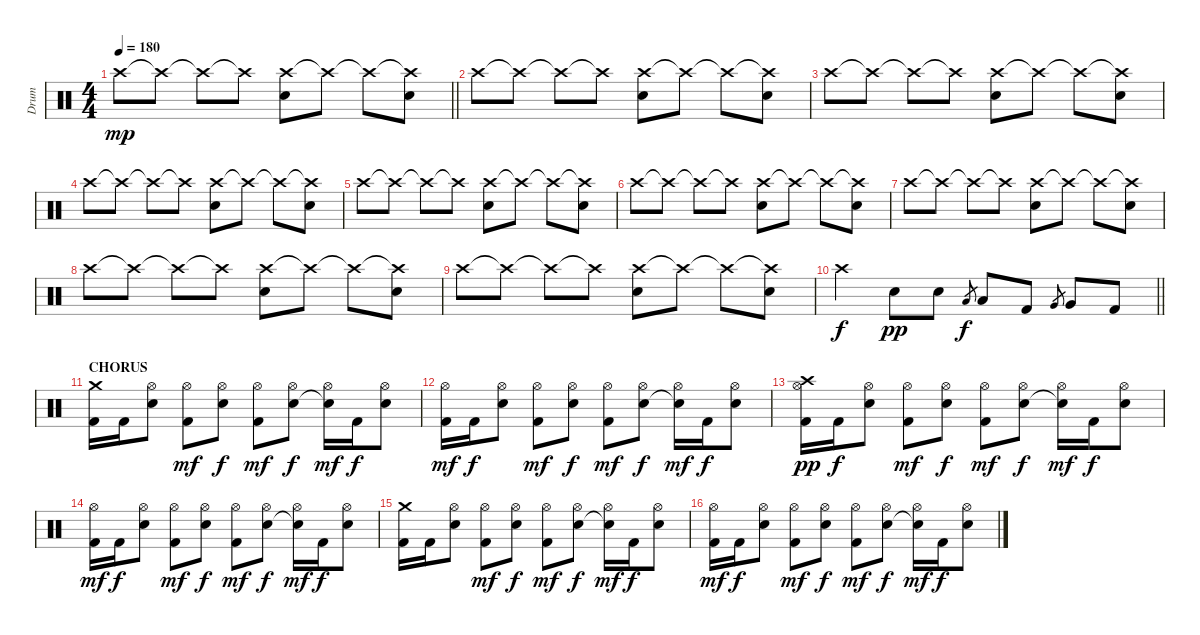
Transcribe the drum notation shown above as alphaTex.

\track ("Drum" "Drum") {instrument percussion}
\staff {score}
\articulation defaults
\ts (4 4)
\tempo 180
\clef neutral
\barLineRight lightlight
\ks c "Crash high (hit)".8{dy mp} "Crash high (hit)"{t}.8 "Crash high (hit)"{t}.8 "Crash high (hit)"{t}.8
("Crash high (hit)" "Electric Snare (hit)").8 "Crash high (hit)"{t}.8 "Crash high (hit)"{t}.8 ("Crash high (hit)"{t} "Electric Snare (hit)").8 |
"Crash high (hit)".8 "Crash high (hit)"{t}.8 "Crash high (hit)"{t}.8 "Crash high (hit)"{t}.8 ("Crash high (hit)" "Electric Snare (hit)").8 "Crash high (hit)"{t}.8 "Crash high (hit)"{t}.8 ("Crash high (hit)"{t} "Electric Snare (hit)").8 |
"Crash high (hit)".8 "Crash high (hit)"{t}.8 "Crash high (hit)"{t}.8 "Crash high (hit)"{t}.8 ("Crash high (hit)" "Electric Snare (hit)").8 "Crash high (hit)"{t}.8 "Crash high (hit)"{t}.8 ("Crash high (hit)"{t} "Electric Snare (hit)").8 |
"Crash high (hit)".8 "Crash high (hit)"{t}.8 "Crash high (hit)"{t}.8 "Crash high (hit)"{t}.8 ("Crash high (hit)" "Electric Snare (hit)").8 "Crash high (hit)"{t}.8 "Crash high (hit)"{t}.8 ("Crash high (hit)"{t} "Electric Snare (hit)").8 |
"Crash high (hit)".8 "Crash high (hit)"{t}.8 "Crash high (hit)"{t}.8 "Crash high (hit)"{t}.8 ("Crash high (hit)" "Electric Snare (hit)").8 "Crash high (hit)"{t}.8 "Crash high (hit)"{t}.8 ("Crash high (hit)"{t} "Electric Snare (hit)").8 |
"Crash high (hit)".8 "Crash high (hit)"{t}.8 "Crash high (hit)"{t}.8 "Crash high (hit)"{t}.8 ("Crash high (hit)" "Electric Snare (hit)").8 "Crash high (hit)"{t}.8 "Crash high (hit)"{t}.8 ("Crash high (hit)"{t} "Electric Snare (hit)").8 |
"Crash high (hit)".8 "Crash high (hit)"{t}.8 "Crash high (hit)"{t}.8 "Crash high (hit)"{t}.8 ("Crash high (hit)" "Electric Snare (hit)").8 "Crash high (hit)"{t}.8 "Crash high (hit)"{t}.8 ("Crash high (hit)"{t} "Electric Snare (hit)").8 |
"Crash high (hit)".8 "Crash high (hit)"{t}.8 "Crash high (hit)"{t}.8 "Crash high (hit)"{t}.8 ("Crash high (hit)" "Electric Snare (hit)").8 "Crash high (hit)"{t}.8 "Crash high (hit)"{t}.8 ("Crash high (hit)"{t} "Electric Snare (hit)").8 |
"Crash high (hit)".8 "Crash high (hit)"{t}.8 "Crash high (hit)"{t}.8 "Crash high (hit)"{t}.8 ("Crash high (hit)" "Electric Snare (hit)").8 "Crash high (hit)"{t}.8 "Crash high (hit)"{t}.8 ("Crash high (hit)"{t} "Electric Snare (hit)").8 |
\barLineRight lightlight "Crash high (hit)".4{dy f} "Electric Snare (hit)".8{dy pp} "Electric Snare (hit)".8 "Low Tom (hit)".8{gr dy f} "Low Tom (hit)".8 "Kick (hit) 2".8 "Very Low Tom (hit)".8{gr} "Very Low Tom (hit)".8 "Kick (hit) 2".8
|
\section ("" "CHORUS")
("Crash medium (hit)" "Kick (hit) 2").16 "Kick (hit) 2".16 ("Hi-Hat (open)" "Electric Snare (hit)").8 ("Hi-Hat (open)" "Kick (hit) 2").8{dy mf} ("Hi-Hat (open)" "Electric Snare (hit)").8{dy f} ("Hi-Hat (open)" "Kick (hit) 2").8{dy mf} ("Hi-Hat (open)" "Electric Snare (hit)").8{dy f} ("Hi-Hat (open)" "Electric Snare (hit)"{t}).16{dy mf} "Kick (hit) 2".16{dy f} ("Hi-Hat (open)" "Electric Snare (hit)").8 |
("Hi-Hat (open)" "Kick (hit) 2").16{dy mf} "Kick (hit) 2".16{dy f} ("Hi-Hat (open)" "Electric Snare (hit)").8 ("Hi-Hat (open)" "Kick (hit) 2").8{dy mf} ("Hi-Hat (open)" "Electric Snare (hit)").8{dy f} ("Hi-Hat (open)" "Kick (hit) 2").8{dy mf} ("Hi-Hat (open)" "Electric Snare (hit)").8{dy f} ("Hi-Hat (open)" "Electric Snare (hit)"{t}).16{dy mf} "Kick (hit) 2".16{dy f} ("Hi-Hat (open)" "Electric Snare (hit)").8 |
("Hi-Hat (open)" "Crash high (hit)" "Kick (hit) 2").16{dy pp} "Kick (hit) 2".16{dy f} ("Hi-Hat (open)" "Electric Snare (hit)").8 ("Hi-Hat (open)" "Kick (hit) 2").8{dy mf} ("Hi-Hat (open)" "Electric Snare (hit)").8{dy f} ("Hi-Hat (open)" "Kick (hit) 2").8{dy mf} ("Hi-Hat (open)" "Electric Snare (hit)").8{dy f} ("Hi-Hat (open)" "Electric Snare (hit)"{t}).16{dy mf} "Kick (hit) 2".16{dy f} ("Hi-Hat (open)" "Electric Snare (hit)").8 |
("Hi-Hat (open)" "Kick (hit) 2").16{dy mf} "Kick (hit) 2".16{dy f} ("Hi-Hat (open)" "Electric Snare (hit)").8 ("Hi-Hat (open)" "Kick (hit) 2").8{dy mf} ("Hi-Hat (open)" "Electric Snare (hit)").8{dy f} ("Hi-Hat (open)" "Kick (hit) 2").8{dy mf} ("Hi-Hat (open)" "Electric Snare (hit)").8{dy f} ("Hi-Hat (open)" "Electric Snare (hit)"{t}).16{dy mf} "Kick (hit) 2".16{dy f} ("Hi-Hat (open)" "Electric Snare (hit)").8 |
("Crash medium (hit)" "Kick (hit) 2").16 "Kick (hit) 2".16 ("Hi-Hat (open)" "Electric Snare (hit)").8 ("Hi-Hat (open)" "Kick (hit) 2").8{dy mf} ("Hi-Hat (open)" "Electric Snare (hit)").8{dy f} ("Hi-Hat (open)" "Kick (hit) 2").8{dy mf} ("Hi-Hat (open)" "Electric Snare (hit)").8{dy f} ("Hi-Hat (open)" "Electric Snare (hit)"{t}).16{dy mf} "Kick (hit) 2".16{dy f} ("Hi-Hat (open)" "Electric Snare (hit)").8 |
("Hi-Hat (open)" "Kick (hit) 2").16{dy mf} "Kick (hit) 2".16{dy f} ("Hi-Hat (open)" "Electric Snare (hit)").8 ("Hi-Hat (open)" "Kick (hit) 2").8{dy mf} ("Hi-Hat (open)" "Electric Snare (hit)").8{dy f} ("Hi-Hat (open)" "Kick (hit) 2").8{dy mf} ("Hi-Hat (open)" "Electric Snare (hit)").8{dy f} ("Hi-Hat (open)" "Electric Snare (hit)"{t}).16{dy mf} "Kick (hit) 2".16{dy f} ("Hi-Hat (open)" "Electric Snare (hit)").8
